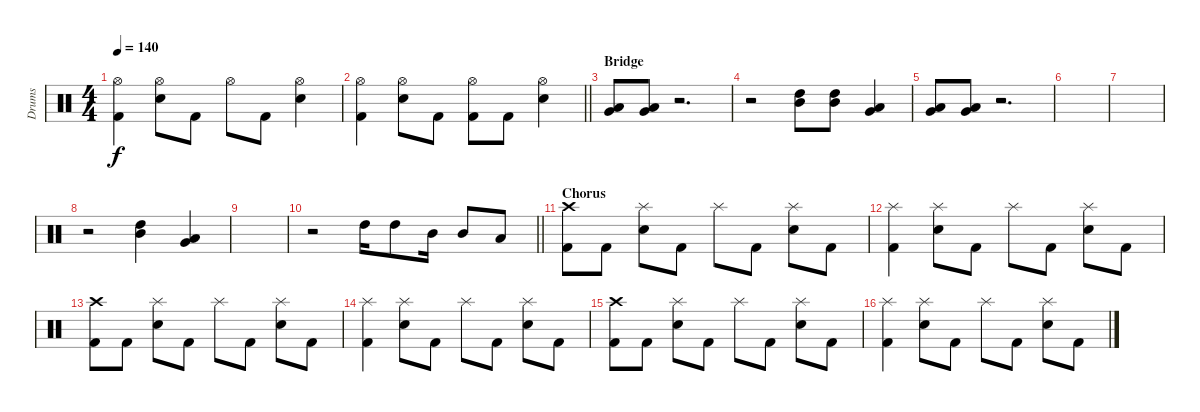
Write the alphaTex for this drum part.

\track ("Drums" "Drums") {instrument percussion}
\staff {score}
\articulation defaults
\ts (4 4)
\tempo 140
\clef neutral
\ks c
("Kick (hit) 2" "Hi-Hat (open)").4{dy f} ("Snare (hit) 2" "Hi-Hat (open)").8 "Kick (hit) 2".8 "Hi-Hat (open)".8 "Kick (hit) 2".8 ("Snare (hit) 2" "Hi-Hat (open)").4 |
\barLineRight lightlight
("Kick (hit) 2" "Hi-Hat (open)").4 ("Snare (hit) 2" "Hi-Hat (open)").8 "Kick (hit) 2".8 ("Kick (hit) 2" "Hi-Hat (open)").8 "Kick (hit) 2".8 ("Snare (hit) 2" "Hi-Hat (open)").4 |
\section ("" "Bridge")
("Low Tom (hit)" "Very Low Tom (hit)").8 ("Low Tom (hit)" "Very Low Tom (hit)").8 r.2{d} |
r.2 ("High Tom (hit)" "Mid Tom (hit)").8 ("High Tom (hit)" "Mid Tom (hit)").8 ("Low Tom (hit)" "Very Low Tom (hit)").4 |
("Low Tom (hit)" "Very Low Tom (hit)").8 ("Low Tom (hit)" "Very Low Tom (hit)").8 r.2{d} |
|
|
r.2 ("High Tom (hit)" "Mid Tom (hit)").4 ("Low Tom (hit)" "Very Low Tom (hit)").4 |
|
\barLineRight lightlight
r.2 "High Tom (hit)".16 "High Tom (hit)".8 "Mid Tom (hit)".16 "Mid Tom (hit)".8 "Low Tom (hit)".8 |
\section ("" "Chorus")
("Kick (hit) 2" "Crash high (hit)").8 "Kick (hit) 2".8 ("Snare (hit) 2" "Splash (hit)").8 "Kick (hit) 2".8 "Splash (hit)".8 "Kick (hit) 2".8 ("Snare (hit) 2" "Splash (hit)").8 "Kick (hit) 2".8 |
("Kick (hit) 2" "Splash (hit)").4 ("Snare (hit) 2" "Splash (hit)").8 "Kick (hit) 2".8 "Splash (hit)".8 "Kick (hit) 2".8 ("Snare (hit) 2" "Splash (hit)").8 "Kick (hit) 2".8 |
("Kick (hit) 2" "Crash high (hit)").8 "Kick (hit) 2".8 ("Snare (hit) 2" "Splash (hit)").8 "Kick (hit) 2".8 "Splash (hit)".8 "Kick (hit) 2".8 ("Snare (hit) 2" "Splash (hit)").8 "Kick (hit) 2".8 |
("Kick (hit) 2" "Splash (hit)").4 ("Snare (hit) 2" "Splash (hit)").8 "Kick (hit) 2".8 "Splash (hit)".8 "Kick (hit) 2".8 ("Snare (hit) 2" "Splash (hit)").8 "Kick (hit) 2".8 |
("Kick (hit) 2" "Crash high (hit)").8 "Kick (hit) 2".8 ("Snare (hit) 2" "Splash (hit)").8 "Kick (hit) 2".8 "Splash (hit)".8 "Kick (hit) 2".8 ("Snare (hit) 2" "Splash (hit)").8 "Kick (hit) 2".8 |
("Kick (hit) 2" "Splash (hit)").4 ("Snare (hit) 2" "Splash (hit)").8 "Kick (hit) 2".8 "Splash (hit)".8 "Kick (hit) 2".8 ("Snare (hit) 2" "Splash (hit)").8 "Kick (hit) 2".8
